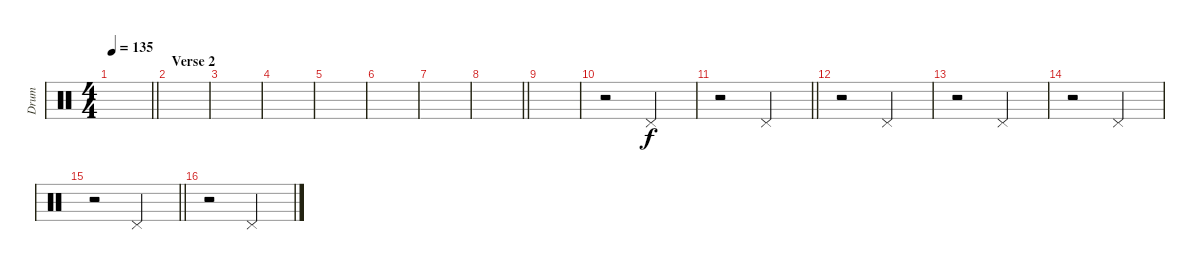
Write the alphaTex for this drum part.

\track ("Drum" "Drum") {instrument percussion}
\staff {score}
\articulation defaults
\ts (4 4)
\tempo 135
\clef neutral
\barLineRight lightlight
\ks c
|
\section ("" "Verse 2")
|
|
|
|
|
|
\barLineRight lightlight
|
|
r.2 "Pedal Hi-Hat (hit)".2 |
\barLineRight lightlight
r.2 "Pedal Hi-Hat (hit)".2 |
r.2 "Pedal Hi-Hat (hit)".2 |
r.2 "Pedal Hi-Hat (hit)".2 |
r.2 "Pedal Hi-Hat (hit)".2 |
\barLineRight lightlight
r.2 "Pedal Hi-Hat (hit)".2 |
r.2 "Pedal Hi-Hat (hit)".2
